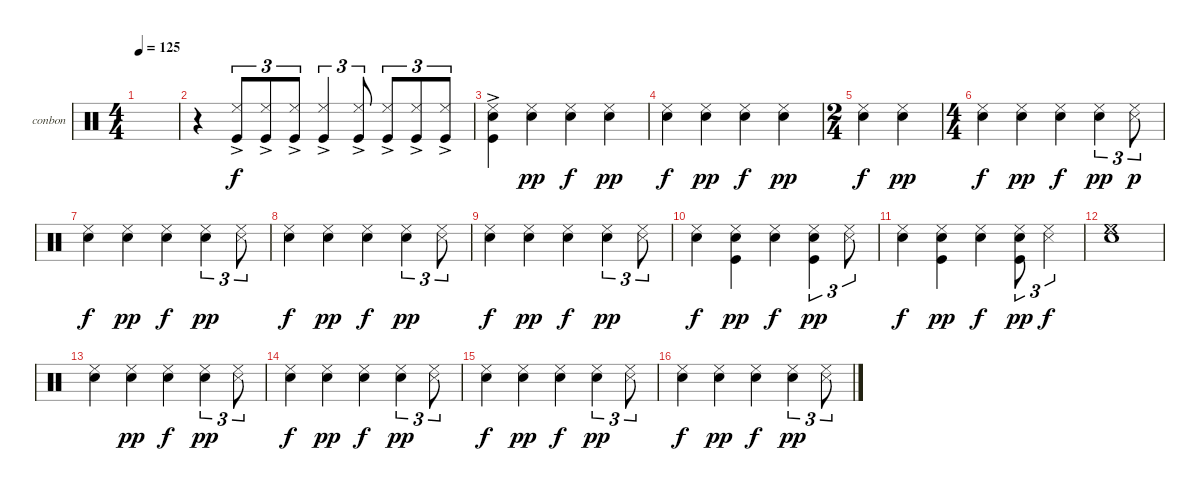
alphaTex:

\defaultSystemsLayout 4
\bracketExtendMode groupsimilarinstruments
\firstSystemTrackNameOrientation horizontal
\otherSystemsTrackNameOrientation horizontal
\track ("Bongos N Congas" "conbon") {instrument percussion}
\staff {score}
\articulation defaults
\ts (4 4)
\tempo 125
\clef neutral
\scale
0.333333
\ks c
|
\scale
0.333333 r.4 ("Cowbell low (tip)"{ac} "Kick (hit)").8{tu (3 2)} ("Cowbell low (tip)"{ac} "Kick (hit)").8{tu (3 2)} ("Cowbell low (tip)"{ac} "Kick (hit)").8{tu (3 2)} ("Cowbell low (tip)"{ac} "Kick (hit)").4{tu (3 2)} ("Cowbell low (tip)"{ac} "Kick (hit)").8{tu (3 2)} ("Cowbell low (tip)"{ac} "Kick (hit)").8{tu (3 2)} ("Cowbell low (tip)"{ac} "Kick (hit)").8{tu (3 2)} ("Cowbell low (tip)"{ac} "Kick (hit)").8{tu (3 2)} |
\scale
0.262911 ("Cowbell low (tip)" "Kick (hit)"{ac} "Snare (hit) 2"{ac}).4 ("Cowbell low (tip)" "Snare (hit) 2").4{dy pp} ("Cowbell low (tip)" "Snare (hit) 2").4{dy f} ("Cowbell low (tip)" "Snare (hit) 2").4{dy pp} |
\scale
0.262911 ("Cowbell low (tip)" "Snare (hit) 2").4{dy f} ("Cowbell low (tip)" "Snare (hit) 2").4{dy pp} ("Cowbell low (tip)" "Snare (hit) 2").4{dy f} ("Cowbell low (tip)" "Snare (hit) 2").4{dy pp} |
\ts (2 4)
\scale
0.474178 ("Cowbell low (tip)" "Snare (hit) 2").4{dy f} ("Cowbell low (tip)" "Snare (hit) 2").4{dy pp} |
\ts (4 4)
\scale
0.474178 ("Cowbell low (tip)" "Snare (hit) 2").4{dy f} ("Cowbell low (tip)" "Snare (hit) 2").4{dy pp} ("Cowbell low (tip)" "Snare (hit) 2").4{dy f} ("Cowbell low (tip)" "Snare (hit) 2").4{tu (3 2) dy pp} ("Cowbell low (tip)" "Snare (side stick) 3").8{tu (3 2) dy p} |
\scale
0.262911 ("Cowbell low (tip)" "Snare (hit) 2").4{dy f} ("Cowbell low (tip)" "Snare (hit) 2").4{dy pp} ("Cowbell low (tip)" "Snare (hit) 2").4{dy f} ("Cowbell low (tip)" "Snare (hit) 2").4{tu (3 2) dy pp} ("Cowbell low (tip)" "Snare (side stick) 3").8{tu (3 2)} |
\scale
0.262911 ("Cowbell low (tip)" "Snare (hit) 2").4{dy f} ("Cowbell low (tip)" "Snare (hit) 2").4{dy pp} ("Cowbell low (tip)" "Snare (hit) 2").4{dy f} ("Cowbell low (tip)" "Snare (hit) 2").4{tu (3 2) dy pp} ("Cowbell low (tip)" "Snare (side stick) 3").8{tu (3 2)} |
\scale
0.333333 ("Cowbell low (tip)" "Snare (hit) 2").4{dy f} ("Cowbell low (tip)" "Snare (hit) 2").4{dy pp} ("Cowbell low (tip)" "Snare (hit) 2").4{dy f} ("Cowbell low (tip)" "Snare (hit) 2").4{tu (3 2) dy pp} ("Cowbell low (tip)" "Snare (side stick) 3").8{tu (3 2)} |
\scale
0.333333 ("Cowbell low (tip)" "Snare (hit) 2").4{dy f} ("Cowbell low (tip)" "Kick (hit)" "Snare (hit) 2").4{dy pp} ("Cowbell low (tip)" "Snare (hit) 2").4{dy f} ("Cowbell low (tip)" "Kick (hit)" "Snare (hit) 2").4{tu (3 2) dy pp} ("Cowbell low (tip)" "Snare (side stick) 3").8{tu (3 2)} |
\scale
0.333333 ("Cowbell low (tip)" "Snare (hit) 2").4{dy f} ("Cowbell low (tip)" "Kick (hit)" "Snare (hit) 2").4{dy pp} ("Cowbell low (tip)" "Snare (hit) 2").4{dy f} ("Cowbell low (tip)" "Kick (hit)" "Snare (hit) 2").8{tu (3 2) dy pp} ("Cowbell low (tip)" "Snare (side stick) 3").4{tu (3 2) dy f} |
\scale
0.333333 ("Cowbell low (tip)" "Snare (hit) 2").1 |
\scale
0.333333 ("Cowbell low (tip)" "Snare (hit) 2").4 ("Cowbell low (tip)" "Snare (hit) 2").4{dy pp} ("Cowbell low (tip)" "Snare (hit) 2").4{dy f} ("Cowbell low (tip)" "Snare (hit) 2").4{tu (3 2) dy pp} ("Cowbell low (tip)" "Snare (side stick) 3").8{tu (3 2)} |
\scale
0.333333 ("Cowbell low (tip)" "Snare (hit) 2").4{dy f} ("Cowbell low (tip)" "Snare (hit) 2").4{dy pp} ("Cowbell low (tip)" "Snare (hit) 2").4{dy f} ("Cowbell low (tip)" "Snare (hit) 2").4{tu (3 2) dy pp} ("Cowbell low (tip)" "Snare (side stick) 3").8{tu (3 2)} |
\scale
0.333333 ("Cowbell low (tip)" "Snare (hit) 2").4{dy f} ("Cowbell low (tip)" "Snare (hit) 2").4{dy pp} ("Cowbell low (tip)" "Snare (hit) 2").4{dy f} ("Cowbell low (tip)" "Snare (hit) 2").4{tu (3 2) dy pp} ("Cowbell low (tip)" "Snare (side stick) 3").8{tu (3 2)} |
\scale
0.333333 ("Cowbell low (tip)" "Snare (hit) 2").4{dy f} ("Cowbell low (tip)" "Snare (hit) 2").4{dy pp} ("Cowbell low (tip)" "Snare (hit) 2").4{dy f} ("Cowbell low (tip)" "Snare (hit) 2").4{tu (3 2) dy pp} ("Cowbell low (tip)" "Snare (side stick) 3").8{tu (3 2)}
